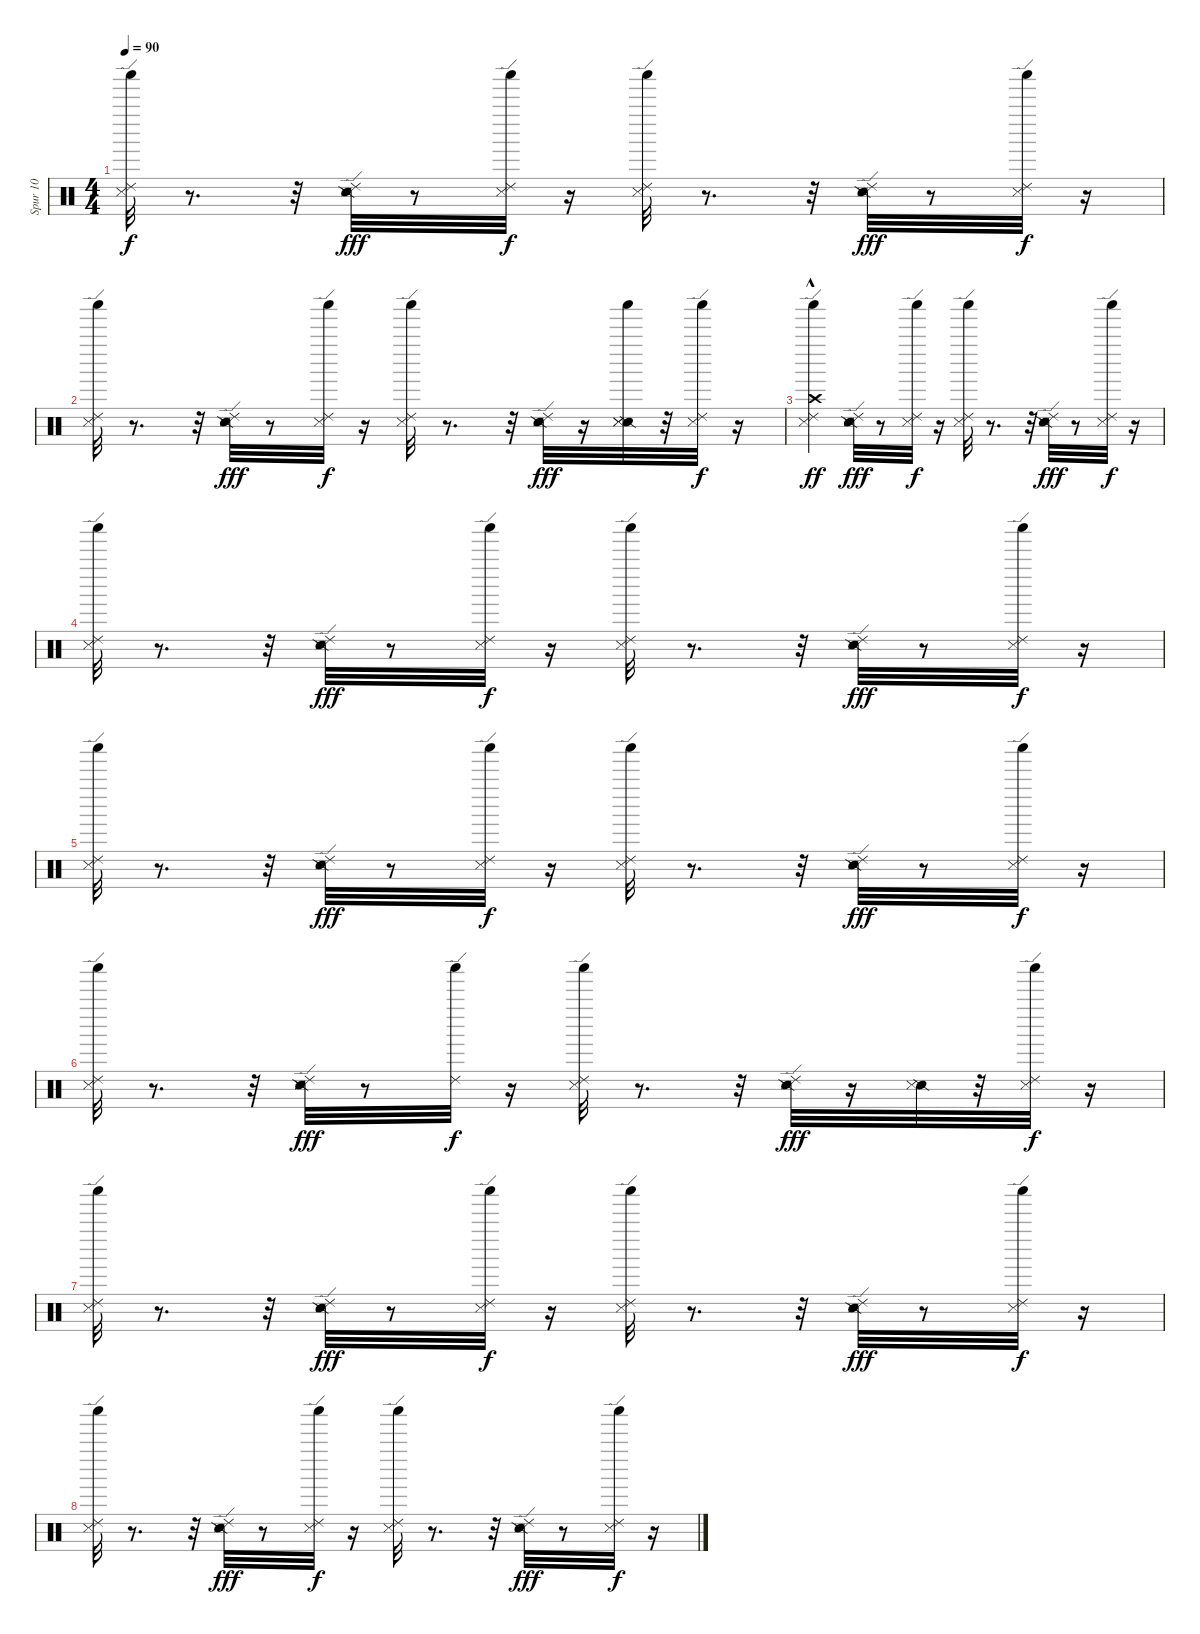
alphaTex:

\track ("Spur 10" "Spur 10") {instrument percussion}
\staff {score}
\articulation defaults
\ts (4 4)
\tempo 90
\clef neutral
\ks c
("Shaker (hit)" "Ride (edge) 2" "Metronome (hit)").32{dy f} r.8{d} r.32 ("Ride (edge) 2" "Snare (side stick) 2" "Snare (side stick) 3").32{dy fff} r.8 ("Shaker (hit)" "Ride (edge) 2" "Metronome (hit)").32{dy f} r.16 ("Shaker (hit)" "Ride (edge) 2" "Metronome (hit)").32 r.8{d} r.32 ("Ride (edge) 2" "Snare (side stick) 2" "Snare (side stick) 3").32{dy fff} r.8 ("Ride (edge) 2" "Shaker (hit)" "Metronome (hit)").32{dy f} r.16 |
("Shaker (hit)" "Ride (edge) 2" "Metronome (hit)").32 r.8{d} r.32 ("Ride (edge) 2" "Snare (side stick) 2" "Snare (side stick) 3").32{dy fff} r.8 ("Ride (edge) 2" "Shaker (hit)" "Metronome (hit)").32{dy f} r.16 ("Ride (edge) 2" "Shaker (hit)" "Metronome (hit)").32 r.8{d} r.32 ("Ride (edge) 2" "Snare (side stick) 2" "Snare (side stick) 3").32{dy fff} r.16 ("Shaker (hit)" "Snare (side stick) 2" "Metronome (hit)" "Snare (side stick) 3").32 r.32 ("Shaker (hit)" "Ride (edge) 2" "Metronome (hit)").32{dy f} r.16 |
("Ride (edge) 2" "Shaker (hit)" "Metronome (hit)" "Crash high (hit)"{hac}).4{dy ff} ("Ride (edge) 2" "Snare (side stick) 2" "Snare (side stick) 3").32{dy fff} r.8 ("Ride (edge) 2" "Shaker (hit)" "Metronome (hit)").32{dy f} r.16 ("Ride (edge) 2" "Shaker (hit)" "Metronome (hit)").32 r.8{d} r.32 ("Ride (edge) 2" "Snare (side stick) 2" "Snare (side stick) 3").32{dy fff} r.8 ("Ride (edge) 2" "Shaker (hit)" "Metronome (hit)").32{dy f} r.16 |
("Ride (edge) 2" "Shaker (hit)" "Metronome (hit)").32 r.8{d} r.32 ("Ride (edge) 2" "Snare (side stick) 2" "Snare (side stick) 3").32{dy fff} r.8 ("Shaker (hit)" "Ride (edge) 2" "Metronome (hit)").32{dy f} r.16 ("Ride (edge) 2" "Shaker (hit)" "Metronome (hit)").32 r.8{d} r.32 ("Ride (edge) 2" "Snare (side stick) 2" "Snare (side stick) 3").32{dy fff} r.8 ("Ride (edge) 2" "Shaker (hit)" "Metronome (hit)").32{dy f} r.16 |
("Shaker (hit)" "Ride (edge) 2" "Metronome (hit)").32 r.8{d} r.32 ("Ride (edge) 2" "Snare (side stick) 2" "Snare (side stick) 3").32{dy fff} r.8 ("Ride (edge) 2" "Shaker (hit)" "Metronome (hit)").32{dy f} r.16 ("Ride (edge) 2" "Shaker (hit)" "Metronome (hit)").32 r.8{d} r.32 ("Ride (edge) 2" "Snare (side stick) 2" "Snare (side stick) 3").32{dy fff} r.8 ("Shaker (hit)" "Ride (edge) 2" "Metronome (hit)").32{dy f} r.16 |
("Ride (edge) 2" "Shaker (hit)" "Metronome (hit)").32 r.8{d} r.32 ("Ride (edge) 2" "Snare (side stick) 2" "Metronome (hit)" "Snare (side stick) 3").32{dy fff} r.8 ("Ride (edge) 2" "Shaker (hit)").32{dy f} r.16 ("Ride (edge) 2" "Shaker (hit)" "Metronome (hit)").32 r.8{d} r.32 ("Ride (edge) 2" "Snare (side stick) 2" "Snare (side stick) 3").32{dy fff} r.16 ("Snare (side stick) 2" "Snare (side stick) 3").32 r.32 ("Ride (edge) 2" "Shaker (hit)" "Metronome (hit)").32{dy f} r.16 |
("Ride (edge) 2" "Shaker (hit)" "Metronome (hit)").32 r.8{d} r.32 ("Ride (edge) 2" "Snare (side stick) 2" "Snare (side stick) 3").32{dy fff} r.8 ("Shaker (hit)" "Ride (edge) 2" "Metronome (hit)").32{dy f} r.16 ("Ride (edge) 2" "Shaker (hit)" "Metronome (hit)").32 r.8{d} r.32 ("Ride (edge) 2" "Snare (side stick) 2" "Snare (side stick) 3").32{dy fff} r.8 ("Ride (edge) 2" "Shaker (hit)" "Metronome (hit)").32{dy f} r.16 |
("Ride (edge) 2" "Shaker (hit)" "Metronome (hit)").32 r.8{d} r.32 ("Ride (edge) 2" "Snare (side stick) 2" "Snare (side stick) 3").32{dy fff} r.8 ("Ride (edge) 2" "Shaker (hit)" "Metronome (hit)").32{dy f} r.16 ("Ride (edge) 2" "Shaker (hit)" "Metronome (hit)").32 r.8{d} r.32 ("Ride (edge) 2" "Snare (side stick) 2" "Snare (side stick) 3").32{dy fff} r.8 ("Shaker (hit)" "Ride (edge) 2" "Metronome (hit)").32{dy f} r.16
